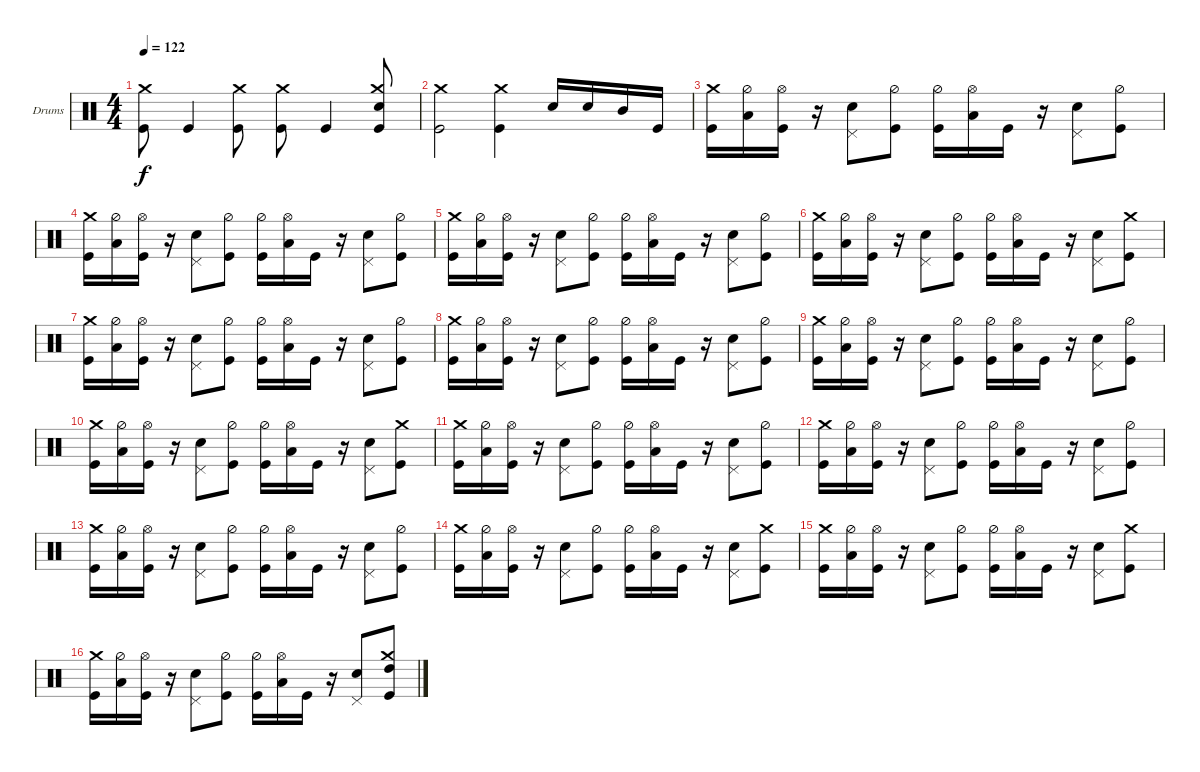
\defaultSystemsLayout 4
\bracketExtendMode groupsimilarinstruments
\firstSystemTrackNameOrientation horizontal
\otherSystemsTrackNameOrientation horizontal
\track ("Drumkit" "Drums") {instrument percussion}
\staff {score}
\articulation defaults
\ts (4 4)
\tempo 122
\clef neutral
\ks c
("Kick (hit)" "Crash medium (hit)").8{dy f} "Kick (hit)".4 ("Kick (hit)" "Crash medium (hit)").8 ("Kick (hit)" "Crash medium (hit)").8 "Kick (hit)".4 ("Kick (hit)" "Crash medium (hit)" "Snare (hit) 2").8 |
("Kick (hit)" "Crash medium (hit)").2 ("Kick (hit)" "Crash medium (hit)").4 "Snare (hit) 2".16 "Snare (hit) 2".16 "Mid Tom (hit)".16 "Kick (hit)".16 |
("Kick (hit)" "Crash medium (hit)").16 ("Hi-Hat (half)" "Low Tom (hit)").16 ("Kick (hit)" "Hi-Hat (open)").16 r.16 ("Snare (hit) 2" "Pedal Hi-Hat (hit)").8 ("Kick (hit)" "Hi-Hat (half)").8 ("Kick (hit)" "Hi-Hat (half)").16 ("Low Tom (hit)" "Hi-Hat (open)").16 "Kick (hit)".16 r.16 ("Snare (hit) 2" "Pedal Hi-Hat (hit)").8 ("Kick (hit)" "Hi-Hat (half)").8 |
("Kick (hit)" "Crash medium (hit)").16 ("Hi-Hat (half)" "Low Tom (hit)").16 ("Kick (hit)" "Hi-Hat (open)").16 r.16 ("Snare (hit) 2" "Pedal Hi-Hat (hit)").8 ("Kick (hit)" "Hi-Hat (half)").8 ("Kick (hit)" "Hi-Hat (half)").16 ("Low Tom (hit)" "Hi-Hat (open)").16 "Kick (hit)".16 r.16 ("Snare (hit) 2" "Pedal Hi-Hat (hit)").8 ("Kick (hit)" "Hi-Hat (half)").8 |
("Kick (hit)" "Crash medium (hit)").16 ("Hi-Hat (half)" "Low Tom (hit)").16 ("Kick (hit)" "Hi-Hat (open)").16 r.16 ("Snare (hit) 2" "Pedal Hi-Hat (hit)").8 ("Kick (hit)" "Hi-Hat (half)").8 ("Kick (hit)" "Hi-Hat (half)").16 ("Low Tom (hit)" "Hi-Hat (open)").16 "Kick (hit)".16 r.16 ("Snare (hit) 2" "Pedal Hi-Hat (hit)").8 ("Kick (hit)" "Hi-Hat (half)").8 |
("Kick (hit)" "Crash medium (hit)").16 ("Hi-Hat (half)" "Low Tom (hit)").16 ("Kick (hit)" "Hi-Hat (open)").16 r.16 ("Snare (hit) 2" "Pedal Hi-Hat (hit)").8 ("Kick (hit)" "Hi-Hat (half)").8 ("Kick (hit)" "Hi-Hat (half)").16 ("Low Tom (hit)" "Hi-Hat (open)").16 "Kick (hit)".16 r.16 ("Snare (hit) 2" "Pedal Hi-Hat (hit)").8 ("Kick (hit)" "Crash medium (hit)").8 |
("Kick (hit)" "Crash medium (hit)").16 ("Hi-Hat (half)" "Low Tom (hit)").16 ("Kick (hit)" "Hi-Hat (open)").16 r.16 ("Snare (hit) 2" "Pedal Hi-Hat (hit)").8 ("Kick (hit)" "Hi-Hat (half)").8 ("Kick (hit)" "Hi-Hat (half)").16 ("Low Tom (hit)" "Hi-Hat (open)").16 "Kick (hit)".16 r.16 ("Snare (hit) 2" "Pedal Hi-Hat (hit)").8 ("Kick (hit)" "Hi-Hat (half)").8 |
("Kick (hit)" "Crash medium (hit)").16 ("Hi-Hat (half)" "Low Tom (hit)").16 ("Kick (hit)" "Hi-Hat (open)").16 r.16 ("Snare (hit) 2" "Pedal Hi-Hat (hit)").8 ("Kick (hit)" "Hi-Hat (half)").8 ("Kick (hit)" "Hi-Hat (half)").16 ("Low Tom (hit)" "Hi-Hat (open)").16 "Kick (hit)".16 r.16 ("Snare (hit) 2" "Pedal Hi-Hat (hit)").8 ("Kick (hit)" "Hi-Hat (half)").8 |
("Kick (hit)" "Crash medium (hit)").16 ("Hi-Hat (half)" "Low Tom (hit)").16 ("Kick (hit)" "Hi-Hat (open)").16 r.16 ("Snare (hit) 2" "Pedal Hi-Hat (hit)").8 ("Kick (hit)" "Hi-Hat (half)").8 ("Kick (hit)" "Hi-Hat (half)").16 ("Low Tom (hit)" "Hi-Hat (open)").16 "Kick (hit)".16 r.16 ("Snare (hit) 2" "Pedal Hi-Hat (hit)").8 ("Kick (hit)" "Hi-Hat (half)").8 |
("Kick (hit)" "Crash medium (hit)").16 ("Hi-Hat (half)" "Low Tom (hit)").16 ("Kick (hit)" "Hi-Hat (open)").16 r.16 ("Snare (hit) 2" "Pedal Hi-Hat (hit)").8 ("Kick (hit)" "Hi-Hat (half)").8 ("Kick (hit)" "Hi-Hat (half)").16 ("Low Tom (hit)" "Hi-Hat (open)").16 "Kick (hit)".16 r.16 ("Snare (hit) 2" "Pedal Hi-Hat (hit)").8 ("Kick (hit)" "Crash medium (hit)").8 |
("Kick (hit)" "Crash medium (hit)").16 ("Hi-Hat (half)" "Low Tom (hit)").16 ("Kick (hit)" "Hi-Hat (open)").16 r.16 ("Snare (hit) 2" "Pedal Hi-Hat (hit)").8 ("Kick (hit)" "Hi-Hat (half)").8 ("Kick (hit)" "Hi-Hat (half)").16 ("Low Tom (hit)" "Hi-Hat (open)").16 "Kick (hit)".16 r.16 ("Snare (hit) 2" "Pedal Hi-Hat (hit)").8 ("Kick (hit)" "Hi-Hat (half)").8 |
("Kick (hit)" "Crash medium (hit)").16 ("Hi-Hat (half)" "Low Tom (hit)").16 ("Kick (hit)" "Hi-Hat (open)").16 r.16 ("Snare (hit) 2" "Pedal Hi-Hat (hit)").8 ("Kick (hit)" "Hi-Hat (half)").8 ("Kick (hit)" "Hi-Hat (half)").16 ("Low Tom (hit)" "Hi-Hat (open)").16 "Kick (hit)".16 r.16 ("Snare (hit) 2" "Pedal Hi-Hat (hit)").8 ("Kick (hit)" "Hi-Hat (half)").8 |
("Kick (hit)" "Crash medium (hit)").16 ("Hi-Hat (half)" "Low Tom (hit)").16 ("Kick (hit)" "Hi-Hat (open)").16 r.16 ("Snare (hit) 2" "Pedal Hi-Hat (hit)").8 ("Kick (hit)" "Hi-Hat (half)").8 ("Kick (hit)" "Hi-Hat (half)").16 ("Low Tom (hit)" "Hi-Hat (open)").16 "Kick (hit)".16 r.16 ("Snare (hit) 2" "Pedal Hi-Hat (hit)").8 ("Kick (hit)" "Hi-Hat (half)").8 |
("Kick (hit)" "Crash medium (hit)").16 ("Hi-Hat (half)" "Low Tom (hit)").16 ("Kick (hit)" "Hi-Hat (open)").16 r.16 ("Snare (hit) 2" "Pedal Hi-Hat (hit)").8 ("Kick (hit)" "Hi-Hat (half)").8 ("Kick (hit)" "Hi-Hat (half)").16 ("Low Tom (hit)" "Hi-Hat (open)").16 "Kick (hit)".16 r.16 ("Snare (hit) 2" "Pedal Hi-Hat (hit)").8 ("Kick (hit)" "Crash medium (hit)").8 |
("Kick (hit)" "Crash medium (hit)").16 ("Hi-Hat (half)" "Low Tom (hit)").16 ("Kick (hit)" "Hi-Hat (open)").16 r.16 ("Snare (hit) 2" "Pedal Hi-Hat (hit)").8 ("Kick (hit)" "Hi-Hat (half)").8 ("Kick (hit)" "Hi-Hat (half)").16 ("Low Tom (hit)" "Hi-Hat (open)").16 "Kick (hit)".16 r.16 ("Snare (hit) 2" "Pedal Hi-Hat (hit)").8 ("Kick (hit)" "Crash medium (hit)").8 |
("Kick (hit)" "Crash medium (hit)").16 ("Hi-Hat (half)" "Low Tom (hit)").16 ("Kick (hit)" "Hi-Hat (open)").16 r.16 ("Snare (hit) 2" "Pedal Hi-Hat (hit)").8 ("Kick (hit)" "Hi-Hat (half)").8 ("Kick (hit)" "Hi-Hat (half)").16 ("Low Tom (hit)" "Hi-Hat (open)").16 "Kick (hit)".16 r.16 ("Snare (hit) 2" "Pedal Hi-Hat (hit)").8 ("Kick (hit)" "Crash medium (hit)" "High Tom (hit)").8
